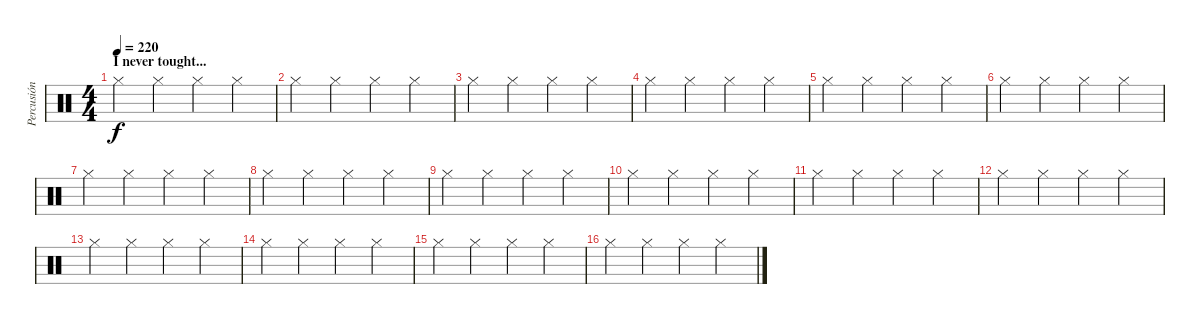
\track ("Percusión" "Percusión") {instrument percussion}
\staff {score}
\articulation defaults
\ts (4 4)
\section ("" "I never tought...")
\tempo 220
\clef neutral
\ks c "Hi-Hat (closed)".4{dy f} "Hi-Hat (closed)".4 "Hi-Hat (closed)".4 "Hi-Hat (closed)".4
|
"Hi-Hat (closed)".4 "Hi-Hat (closed)".4 "Hi-Hat (closed)".4 "Hi-Hat (closed)".4 |
"Hi-Hat (closed)".4 "Hi-Hat (closed)".4 "Hi-Hat (closed)".4 "Hi-Hat (closed)".4 |
"Hi-Hat (closed)".4 "Hi-Hat (closed)".4 "Hi-Hat (closed)".4 "Hi-Hat (closed)".4 |
"Hi-Hat (closed)".4 "Hi-Hat (closed)".4 "Hi-Hat (closed)".4 "Hi-Hat (closed)".4 |
"Hi-Hat (closed)".4 "Hi-Hat (closed)".4 "Hi-Hat (closed)".4 "Hi-Hat (closed)".4 |
"Hi-Hat (closed)".4 "Hi-Hat (closed)".4 "Hi-Hat (closed)".4 "Hi-Hat (closed)".4 |
"Hi-Hat (closed)".4 "Hi-Hat (closed)".4 "Hi-Hat (closed)".4 "Hi-Hat (closed)".4 |
"Hi-Hat (closed)".4 "Hi-Hat (closed)".4 "Hi-Hat (closed)".4 "Hi-Hat (closed)".4 |
"Hi-Hat (closed)".4 "Hi-Hat (closed)".4 "Hi-Hat (closed)".4 "Hi-Hat (closed)".4 |
"Hi-Hat (closed)".4 "Hi-Hat (closed)".4 "Hi-Hat (closed)".4 "Hi-Hat (closed)".4 |
"Hi-Hat (closed)".4 "Hi-Hat (closed)".4 "Hi-Hat (closed)".4 "Hi-Hat (closed)".4 |
"Hi-Hat (closed)".4 "Hi-Hat (closed)".4 "Hi-Hat (closed)".4 "Hi-Hat (closed)".4 |
"Hi-Hat (closed)".4 "Hi-Hat (closed)".4 "Hi-Hat (closed)".4 "Hi-Hat (closed)".4 |
"Hi-Hat (closed)".4 "Hi-Hat (closed)".4 "Hi-Hat (closed)".4 "Hi-Hat (closed)".4 |
"Hi-Hat (closed)".4 "Hi-Hat (closed)".4 "Hi-Hat (closed)".4 "Hi-Hat (closed)".4
